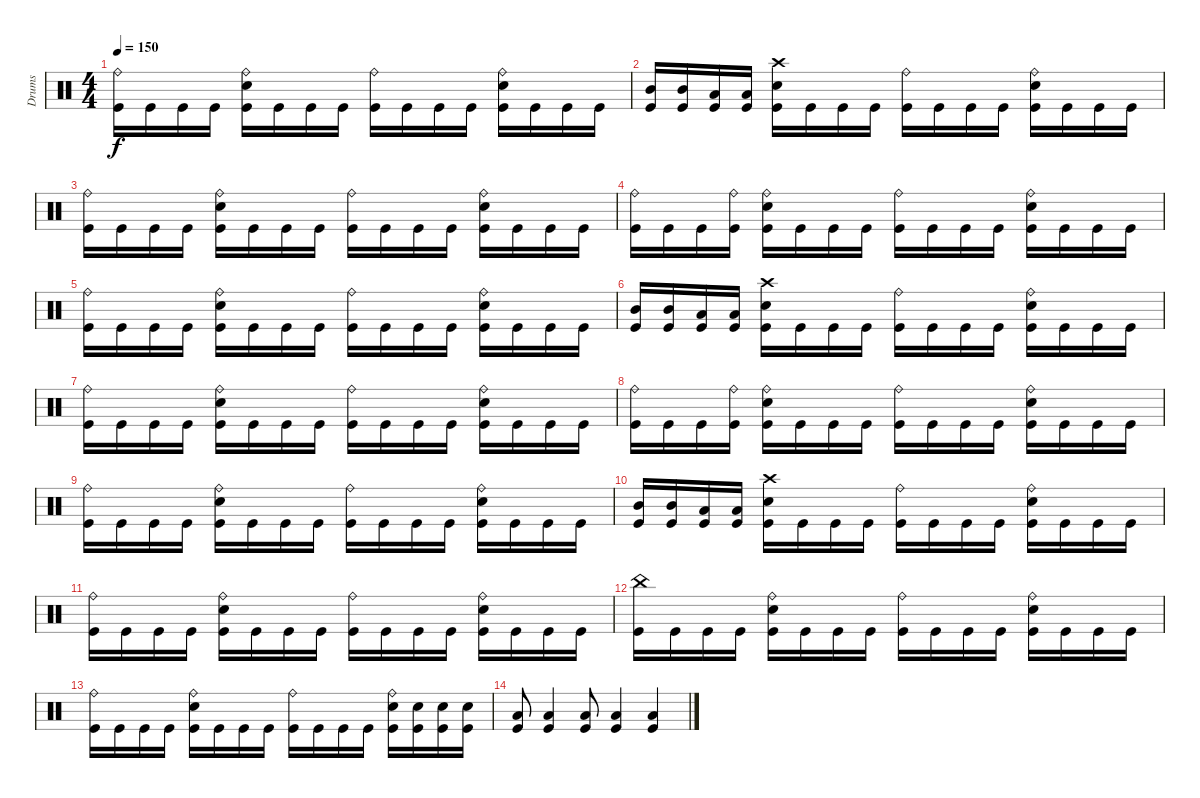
\track ("Drums" "Drums") {instrument percussion}
\staff {score}
\articulation defaults
\ts (4 4)
\tempo 150
\clef neutral
\ks c
("Ride (bell)" "Kick (hit)").16{dy f} "Kick (hit)".16 "Kick (hit)".16 "Kick (hit)".16 ("Ride (bell)" "Electric Snare (hit)" "Kick (hit)").16 "Kick (hit)".16 "Kick (hit)".16 "Kick (hit)".16 ("Ride (bell)" "Kick (hit)").16 "Kick (hit)".16 "Kick (hit)".16 "Kick (hit)".16 ("Ride (bell)" "Electric Snare (hit)" "Kick (hit)").16 "Kick (hit)".16 "Kick (hit)".16 "Kick (hit)".16 |
("Mid Tom (hit)" "Kick (hit)").16 ("Mid Tom (hit)" "Kick (hit)").16 ("Low Tom (hit)" "Kick (hit)").16 ("Low Tom (hit)" "Kick (hit)").16 ("Crash high (hit)" "Electric Snare (hit)" "Kick (hit)").16 "Kick (hit)".16 "Kick (hit)".16 "Kick (hit)".16 ("Ride (bell)" "Kick (hit)").16 "Kick (hit)".16 "Kick (hit)".16 "Kick (hit)".16 ("Ride (bell)" "Electric Snare (hit)" "Kick (hit)").16 "Kick (hit)".16 "Kick (hit)".16 "Kick (hit)".16 |
("Ride (bell)" "Kick (hit)").16 "Kick (hit)".16 "Kick (hit)".16 "Kick (hit)".16 ("Ride (bell)" "Electric Snare (hit)" "Kick (hit)").16 "Kick (hit)".16 "Kick (hit)".16 "Kick (hit)".16 ("Ride (bell)" "Kick (hit)").16 "Kick (hit)".16 "Kick (hit)".16 "Kick (hit)".16 ("Ride (bell)" "Electric Snare (hit)" "Kick (hit)").16 "Kick (hit)".16 "Kick (hit)".16 "Kick (hit)".16 |
("Ride (bell)" "Kick (hit)").16 "Kick (hit)".16 "Kick (hit)".16 ("Ride (bell)" "Kick (hit)").16 ("Ride (bell)" "Electric Snare (hit)" "Kick (hit)").16 "Kick (hit)".16 "Kick (hit)".16 "Kick (hit)".16 ("Ride (bell)" "Kick (hit)").16 "Kick (hit)".16 "Kick (hit)".16 "Kick (hit)".16 ("Ride (bell)" "Electric Snare (hit)" "Kick (hit)").16 "Kick (hit)".16 "Kick (hit)".16 "Kick (hit)".16 |
("Ride (bell)" "Kick (hit)").16 "Kick (hit)".16 "Kick (hit)".16 "Kick (hit)".16 ("Ride (bell)" "Electric Snare (hit)" "Kick (hit)").16 "Kick (hit)".16 "Kick (hit)".16 "Kick (hit)".16 ("Ride (bell)" "Kick (hit)").16 "Kick (hit)".16 "Kick (hit)".16 "Kick (hit)".16 ("Ride (bell)" "Electric Snare (hit)" "Kick (hit)").16 "Kick (hit)".16 "Kick (hit)".16 "Kick (hit)".16 |
("Mid Tom (hit)" "Kick (hit)").16 ("Mid Tom (hit)" "Kick (hit)").16 ("Low Tom (hit)" "Kick (hit)").16 ("Low Tom (hit)" "Kick (hit)").16 ("Crash high (hit)" "Electric Snare (hit)" "Kick (hit)").16 "Kick (hit)".16 "Kick (hit)".16 "Kick (hit)".16 ("Ride (bell)" "Kick (hit)").16 "Kick (hit)".16 "Kick (hit)".16 "Kick (hit)".16 ("Ride (bell)" "Electric Snare (hit)" "Kick (hit)").16 "Kick (hit)".16 "Kick (hit)".16 "Kick (hit)".16 |
("Ride (bell)" "Kick (hit)").16 "Kick (hit)".16 "Kick (hit)".16 "Kick (hit)".16 ("Ride (bell)" "Electric Snare (hit)" "Kick (hit)").16 "Kick (hit)".16 "Kick (hit)".16 "Kick (hit)".16 ("Ride (bell)" "Kick (hit)").16 "Kick (hit)".16 "Kick (hit)".16 "Kick (hit)".16 ("Ride (bell)" "Electric Snare (hit)" "Kick (hit)").16 "Kick (hit)".16 "Kick (hit)".16 "Kick (hit)".16 |
("Ride (bell)" "Kick (hit)").16 "Kick (hit)".16 "Kick (hit)".16 ("Ride (bell)" "Kick (hit)").16 ("Ride (bell)" "Electric Snare (hit)" "Kick (hit)").16 "Kick (hit)".16 "Kick (hit)".16 "Kick (hit)".16 ("Ride (bell)" "Kick (hit)").16 "Kick (hit)".16 "Kick (hit)".16 "Kick (hit)".16 ("Ride (bell)" "Electric Snare (hit)" "Kick (hit)").16 "Kick (hit)".16 "Kick (hit)".16 "Kick (hit)".16 |
("Ride (bell)" "Kick (hit)").16 "Kick (hit)".16 "Kick (hit)".16 "Kick (hit)".16 ("Ride (bell)" "Electric Snare (hit)" "Kick (hit)").16 "Kick (hit)".16 "Kick (hit)".16 "Kick (hit)".16 ("Ride (bell)" "Kick (hit)").16 "Kick (hit)".16 "Kick (hit)".16 "Kick (hit)".16 ("Ride (bell)" "Electric Snare (hit)" "Kick (hit)").16 "Kick (hit)".16 "Kick (hit)".16 "Kick (hit)".16 |
("Mid Tom (hit)" "Kick (hit)").16 ("Mid Tom (hit)" "Kick (hit)").16 ("Low Tom (hit)" "Kick (hit)").16 ("Low Tom (hit)" "Kick (hit)").16 ("Crash high (hit)" "Electric Snare (hit)" "Kick (hit)").16 "Kick (hit)".16 "Kick (hit)".16 "Kick (hit)".16 ("Ride (bell)" "Kick (hit)").16 "Kick (hit)".16 "Kick (hit)".16 "Kick (hit)".16 ("Ride (bell)" "Electric Snare (hit)" "Kick (hit)").16 "Kick (hit)".16 "Kick (hit)".16 "Kick (hit)".16 |
("Ride (bell)" "Kick (hit)").16 "Kick (hit)".16 "Kick (hit)".16 "Kick (hit)".16 ("Ride (bell)" "Electric Snare (hit)" "Kick (hit)").16 "Kick (hit)".16 "Kick (hit)".16 "Kick (hit)".16 ("Ride (bell)" "Kick (hit)").16 "Kick (hit)".16 "Kick (hit)".16 "Kick (hit)".16 ("Ride (bell)" "Electric Snare (hit)" "Kick (hit)").16 "Kick (hit)".16 "Kick (hit)".16 "Kick (hit)".16 |
("China (hit)" "Kick (hit)").16 "Kick (hit)".16 "Kick (hit)".16 "Kick (hit)".16 ("Ride (bell)" "Electric Snare (hit)" "Kick (hit)").16 "Kick (hit)".16 "Kick (hit)".16 "Kick (hit)".16 ("Ride (bell)" "Kick (hit)").16 "Kick (hit)".16 "Kick (hit)".16 "Kick (hit)".16 ("Ride (bell)" "Electric Snare (hit)" "Kick (hit)").16 "Kick (hit)".16 "Kick (hit)".16 "Kick (hit)".16 |
("Ride (bell)" "Kick (hit)").16 "Kick (hit)".16 "Kick (hit)".16 "Kick (hit)".16 ("Ride (bell)" "Electric Snare (hit)" "Kick (hit)").16 "Kick (hit)".16 "Kick (hit)".16 "Kick (hit)".16 ("Ride (bell)" "Kick (hit)").16 "Kick (hit)".16 "Kick (hit)".16 "Kick (hit)".16 ("Ride (bell)" "Electric Snare (hit)" "Kick (hit)").16 ("Electric Snare (hit)" "Kick (hit)").16 ("Electric Snare (hit)" "Kick (hit)").16 ("Electric Snare (hit)" "Kick (hit)").16 |
("Low Floor Tom (hit)" "Kick (hit)").8 ("Low Floor Tom (hit)" "Kick (hit)").4 ("Low Floor Tom (hit)" "Kick (hit)").8 ("Low Floor Tom (hit)" "Kick (hit)").4 ("Low Floor Tom (hit)" "Kick (hit)").4
